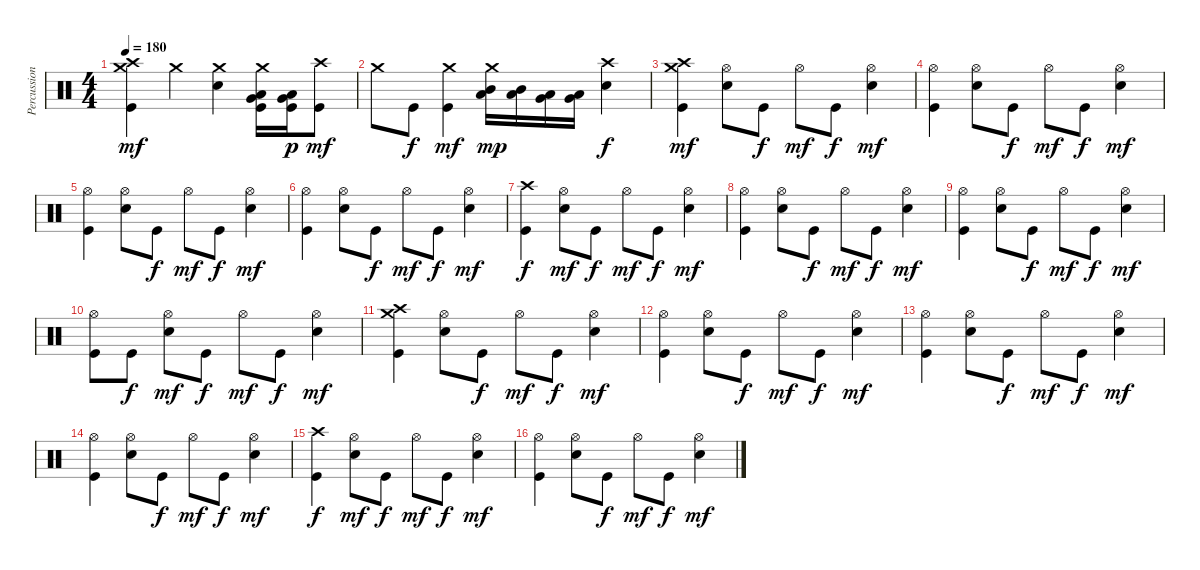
\track ("Percussions" "Percussion") {instrument percussion}
\staff {score}
\articulation defaults
\ts (4 4)
\tempo 180
\clef neutral
\ks c
("Kick (hit)" "Crash medium (hit)" "Crash high (hit)").4{dy mf} "Crash medium (hit)".4 ("Electric Snare (hit)" "Crash medium (hit)").4 ("Kick (hit)" "Very Low Tom (hit)" "Low Tom (hit)" "Crash medium (hit)").16 ("Kick (hit)" "Very Low Tom (hit)" "Low Tom (hit)").16{dy p} ("Kick (hit)" "Crash high (hit)").8{dy mf} |
"Crash medium (hit)".8 "Kick (hit)".8{dy f} ("Kick (hit)" "Crash medium (hit)").4{dy mf} ("Low Tom (hit)" "Mid Tom (hit)" "Crash medium (hit)").16{dy mp} ("Low Tom (hit)" "Mid Tom (hit)").16 ("Very Low Tom (hit)" "Low Tom (hit)").16 ("Very Low Tom (hit)" "Low Tom (hit)").16 ("Electric Snare (hit)" "Crash high (hit)").4{dy f} |
("Kick (hit)" "Crash high (hit)" "Crash medium (hit)").4{dy mf} ("Electric Snare (hit)" "Hi-Hat (open)").8 "Kick (hit)".8{dy f} "Hi-Hat (open)".8{dy mf} "Kick (hit)".8{dy f} ("Electric Snare (hit)" "Hi-Hat (open)").4{dy mf} |
("Kick (hit)" "Hi-Hat (open)").4 ("Electric Snare (hit)" "Hi-Hat (open)").8 "Kick (hit)".8{dy f} "Hi-Hat (open)".8{dy mf} "Kick (hit)".8{dy f} ("Electric Snare (hit)" "Hi-Hat (open)").4{dy mf} |
("Kick (hit)" "Hi-Hat (open)").4 ("Electric Snare (hit)" "Hi-Hat (open)").8 "Kick (hit)".8{dy f} "Hi-Hat (open)".8{dy mf} "Kick (hit)".8{dy f} ("Electric Snare (hit)" "Hi-Hat (open)").4{dy mf} |
("Kick (hit)" "Hi-Hat (open)").4 ("Electric Snare (hit)" "Hi-Hat (open)").8 "Kick (hit)".8{dy f} "Hi-Hat (open)".8{dy mf} "Kick (hit)".8{dy f} ("Electric Snare (hit)" "Hi-Hat (open)").4{dy mf} |
("Kick (hit)" "Crash high (hit)").4{dy f} ("Electric Snare (hit)" "Hi-Hat (open)").8{dy mf} "Kick (hit)".8{dy f} "Hi-Hat (open)".8{dy mf} "Kick (hit)".8{dy f} ("Electric Snare (hit)" "Hi-Hat (open)").4{dy mf} |
("Kick (hit)" "Hi-Hat (open)").4 ("Electric Snare (hit)" "Hi-Hat (open)").8 "Kick (hit)".8{dy f} "Hi-Hat (open)".8{dy mf} "Kick (hit)".8{dy f} ("Electric Snare (hit)" "Hi-Hat (open)").4{dy mf} |
("Kick (hit)" "Hi-Hat (open)").4 ("Electric Snare (hit)" "Hi-Hat (open)").8 "Kick (hit)".8{dy f} "Hi-Hat (open)".8{dy mf} "Kick (hit)".8{dy f} ("Electric Snare (hit)" "Hi-Hat (open)").4{dy mf} |
("Kick (hit)" "Hi-Hat (open)").8 "Kick (hit)".8{dy f} ("Electric Snare (hit)" "Hi-Hat (open)").8{dy mf} "Kick (hit)".8{dy f} "Hi-Hat (open)".8{dy mf} "Kick (hit)".8{dy f} ("Electric Snare (hit)" "Hi-Hat (open)").4{dy mf} |
("Kick (hit)" "Crash high (hit)" "Crash medium (hit)").4 ("Electric Snare (hit)" "Hi-Hat (open)").8 "Kick (hit)".8{dy f} "Hi-Hat (open)".8{dy mf} "Kick (hit)".8{dy f} ("Electric Snare (hit)" "Hi-Hat (open)").4{dy mf} |
("Kick (hit)" "Hi-Hat (open)").4 ("Electric Snare (hit)" "Hi-Hat (open)").8 "Kick (hit)".8{dy f} "Hi-Hat (open)".8{dy mf} "Kick (hit)".8{dy f} ("Electric Snare (hit)" "Hi-Hat (open)").4{dy mf} |
("Kick (hit)" "Hi-Hat (open)").4 ("Electric Snare (hit)" "Hi-Hat (open)").8 "Kick (hit)".8{dy f} "Hi-Hat (open)".8{dy mf} "Kick (hit)".8{dy f} ("Electric Snare (hit)" "Hi-Hat (open)").4{dy mf} |
("Kick (hit)" "Hi-Hat (open)").4 ("Electric Snare (hit)" "Hi-Hat (open)").8 "Kick (hit)".8{dy f} "Hi-Hat (open)".8{dy mf} "Kick (hit)".8{dy f} ("Electric Snare (hit)" "Hi-Hat (open)").4{dy mf} |
("Kick (hit)" "Crash high (hit)").4{dy f} ("Electric Snare (hit)" "Hi-Hat (open)").8{dy mf} "Kick (hit)".8{dy f} "Hi-Hat (open)".8{dy mf} "Kick (hit)".8{dy f} ("Electric Snare (hit)" "Hi-Hat (open)").4{dy mf} |
("Kick (hit)" "Hi-Hat (open)").4 ("Electric Snare (hit)" "Hi-Hat (open)").8 "Kick (hit)".8{dy f} "Hi-Hat (open)".8{dy mf} "Kick (hit)".8{dy f} ("Electric Snare (hit)" "Hi-Hat (open)").4{dy mf}
